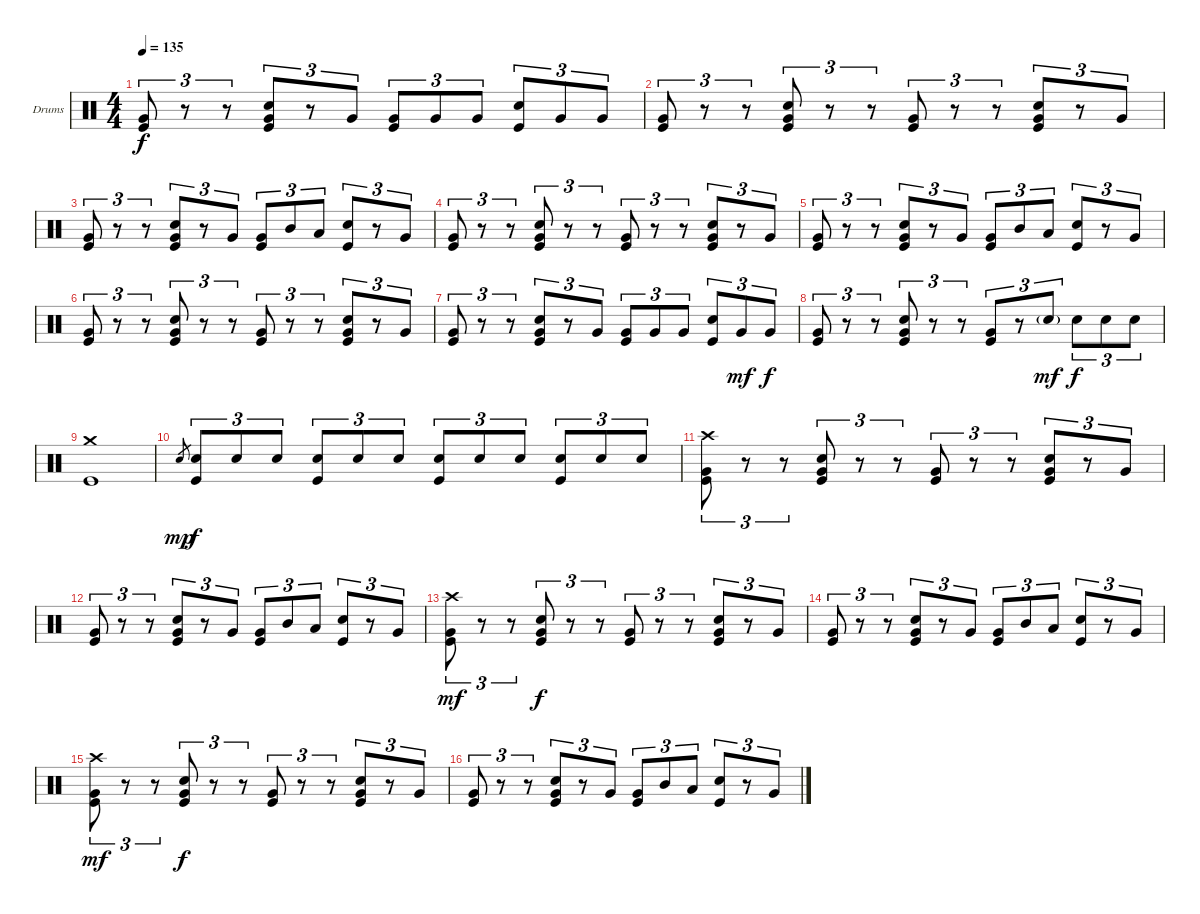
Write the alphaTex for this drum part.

\bracketExtendMode groupsimilarinstruments
\firstSystemTrackNameOrientation horizontal
\otherSystemsTrackNameOrientation horizontal
\track ("Drumkit (Christoph)" "Drums") {instrument percussion}
\staff {score}
\articulation defaults
\ts (4 4)
\tempo 135
\clef neutral
\ks c
("Very Low Tom (hit)" "Kick (hit)").8{tu (3 2) dy f} r.8{tu (3 2)} r.8{tu (3 2)} ("Snare (hit) 2" "Very Low Tom (hit)" "Kick (hit)").8{tu (3 2)} r.8{tu (3 2)} "Very Low Tom (hit)".8{tu (3 2)} ("Very Low Tom (hit)" "Kick (hit)").8{tu (3 2)} "Very Low Tom (hit)".8{tu (3 2)} "Very Low Tom (hit)".8{tu (3 2)} ("Snare (hit) 2" "Kick (hit)").8{tu (3 2)} "Very Low Tom (hit)".8{tu (3 2)} "Very Low Tom (hit)".8{tu (3 2)} |
("Very Low Tom (hit)" "Kick (hit)").8{tu (3 2)} r.8{tu (3 2)} r.8{tu (3 2)} ("Snare (hit) 2" "Very Low Tom (hit)" "Kick (hit)").8{tu (3 2)} r.8{tu (3 2)} r.8{tu (3 2)} ("Very Low Tom (hit)" "Kick (hit)").8{tu (3 2)} r.8{tu (3 2)} r.8{tu (3 2)} ("Snare (hit) 2" "Very Low Tom (hit)" "Kick (hit)").8{tu (3 2)} r.8{tu (3 2)} "Very Low Tom (hit)".8{tu (3 2)} |
("Very Low Tom (hit)" "Kick (hit)").8{tu (3 2)} r.8{tu (3 2)} r.8{tu (3 2)} ("Snare (hit) 2" "Very Low Tom (hit)" "Kick (hit)").8{tu (3 2)} r.8{tu (3 2)} "Very Low Tom (hit)".8{tu (3 2)} ("Very Low Tom (hit)" "Kick (hit)").8{tu (3 2)} "Mid Tom (hit)".8{tu (3 2)} "Low Tom (hit)".8{tu (3 2)} ("Snare (hit) 2" "Kick (hit)").8{tu (3 2)} r.8{tu (3 2)} "Very Low Tom (hit)".8{tu (3 2)} |
("Very Low Tom (hit)" "Kick (hit)").8{tu (3 2)} r.8{tu (3 2)} r.8{tu (3 2)} ("Snare (hit) 2" "Very Low Tom (hit)" "Kick (hit)").8{tu (3 2)} r.8{tu (3 2)} r.8{tu (3 2)} ("Very Low Tom (hit)" "Kick (hit)").8{tu (3 2)} r.8{tu (3 2)} r.8{tu (3 2)} ("Snare (hit) 2" "Very Low Tom (hit)" "Kick (hit)").8{tu (3 2)} r.8{tu (3 2)} "Very Low Tom (hit)".8{tu (3 2)} |
("Very Low Tom (hit)" "Kick (hit)").8{tu (3 2)} r.8{tu (3 2)} r.8{tu (3 2)} ("Snare (hit) 2" "Very Low Tom (hit)" "Kick (hit)").8{tu (3 2)} r.8{tu (3 2)} "Very Low Tom (hit)".8{tu (3 2)} ("Very Low Tom (hit)" "Kick (hit)").8{tu (3 2)} "Mid Tom (hit)".8{tu (3 2)} "Low Tom (hit)".8{tu (3 2)} ("Snare (hit) 2" "Kick (hit)").8{tu (3 2)} r.8{tu (3 2)} "Very Low Tom (hit)".8{tu (3 2)} |
("Very Low Tom (hit)" "Kick (hit)").8{tu (3 2)} r.8{tu (3 2)} r.8{tu (3 2)} ("Snare (hit) 2" "Very Low Tom (hit)" "Kick (hit)").8{tu (3 2)} r.8{tu (3 2)} r.8{tu (3 2)} ("Very Low Tom (hit)" "Kick (hit)").8{tu (3 2)} r.8{tu (3 2)} r.8{tu (3 2)} ("Snare (hit) 2" "Very Low Tom (hit)" "Kick (hit)").8{tu (3 2)} r.8{tu (3 2)} "Very Low Tom (hit)".8{tu (3 2)} |
("Very Low Tom (hit)" "Kick (hit)").8{tu (3 2)} r.8{tu (3 2)} r.8{tu (3 2)} ("Snare (hit) 2" "Very Low Tom (hit)" "Kick (hit)").8{tu (3 2)} r.8{tu (3 2)} "Very Low Tom (hit)".8{tu (3 2)} ("Very Low Tom (hit)" "Kick (hit)").8{tu (3 2)} "Very Low Tom (hit)".8{tu (3 2)} "Very Low Tom (hit)".8{tu (3 2)} ("Snare (hit) 2" "Kick (hit)").8{tu (3 2)} "Very Low Tom (hit)".8{tu (3 2) dy mf} "Very Low Tom (hit)".8{tu (3 2) dy f} |
("Very Low Tom (hit)" "Kick (hit)").8{tu (3 2)} r.8{tu (3 2)} r.8{tu (3 2)} ("Snare (hit) 2" "Very Low Tom (hit)" "Kick (hit)").8{tu (3 2)} r.8{tu (3 2)} r.8{tu (3 2)} ("Very Low Tom (hit)" "Kick (hit)").8{tu (3 2)} r.8{tu (3 2)} "Snare (hit) 2"{g}.8{tu (3 2) dy mf} "Snare (hit) 2".8{tu (3 2) dy f} "Snare (hit) 2".8{tu (3 2)} "Snare (hit) 2".8{tu (3 2)} |
("Crash medium (hit)" "Kick (hit)").1 |
"Snare (hit) 2".8{gr dy mp} ("Snare (hit) 2" "Kick (hit)").8{tu (3 2) dy f} "Snare (hit) 2".8{tu (3 2)} "Snare (hit) 2".8{tu (3 2)} ("Snare (hit) 2" "Kick (hit)").8{tu (3 2)} "Snare (hit) 2".8{tu (3 2)} "Snare (hit) 2".8{tu (3 2)} ("Snare (hit) 2" "Kick (hit)").8{tu (3 2)} "Snare (hit) 2".8{tu (3 2)} "Snare (hit) 2".8{tu (3 2)} ("Snare (hit) 2" "Kick (hit)").8{tu (3 2)} "Snare (hit) 2".8{tu (3 2)} "Snare (hit) 2".8{tu (3 2)} |
("Crash high (hit)" "Very Low Tom (hit)" "Kick (hit)").8{tu (3 2)} r.8{tu (3 2)} r.8{tu (3 2)} ("Snare (hit) 2" "Very Low Tom (hit)" "Kick (hit)").8{tu (3 2)} r.8{tu (3 2)} r.8{tu (3 2)} ("Very Low Tom (hit)" "Kick (hit)").8{tu (3 2)} r.8{tu (3 2)} r.8{tu (3 2)} ("Snare (hit) 2" "Very Low Tom (hit)" "Kick (hit)").8{tu (3 2)} r.8{tu (3 2)} "Very Low Tom (hit)".8{tu (3 2)} |
("Very Low Tom (hit)" "Kick (hit)").8{tu (3 2)} r.8{tu (3 2)} r.8{tu (3 2)} ("Snare (hit) 2" "Very Low Tom (hit)" "Kick (hit)").8{tu (3 2)} r.8{tu (3 2)} "Very Low Tom (hit)".8{tu (3 2)} ("Very Low Tom (hit)" "Kick (hit)").8{tu (3 2)} "Mid Tom (hit)".8{tu (3 2)} "Low Tom (hit)".8{tu (3 2)} ("Snare (hit) 2" "Kick (hit)").8{tu (3 2)} r.8{tu (3 2)} "Very Low Tom (hit)".8{tu (3 2)} |
("Crash high (hit)" "Very Low Tom (hit)" "Kick (hit)").8{tu (3 2) dy mf} r.8{tu (3 2)} r.8{tu (3 2)} ("Snare (hit) 2" "Very Low Tom (hit)" "Kick (hit)").8{tu (3 2) dy f} r.8{tu (3 2)} r.8{tu (3 2)} ("Very Low Tom (hit)" "Kick (hit)").8{tu (3 2)} r.8{tu (3 2)} r.8{tu (3 2)} ("Snare (hit) 2" "Very Low Tom (hit)" "Kick (hit)").8{tu (3 2)} r.8{tu (3 2)} "Very Low Tom (hit)".8{tu (3 2)} |
("Very Low Tom (hit)" "Kick (hit)").8{tu (3 2)} r.8{tu (3 2)} r.8{tu (3 2)} ("Snare (hit) 2" "Very Low Tom (hit)" "Kick (hit)").8{tu (3 2)} r.8{tu (3 2)} "Very Low Tom (hit)".8{tu (3 2)} ("Very Low Tom (hit)" "Kick (hit)").8{tu (3 2)} "Mid Tom (hit)".8{tu (3 2)} "Low Tom (hit)".8{tu (3 2)} ("Snare (hit) 2" "Kick (hit)").8{tu (3 2)} r.8{tu (3 2)} "Very Low Tom (hit)".8{tu (3 2)} |
("Crash high (hit)" "Very Low Tom (hit)" "Kick (hit)").8{tu (3 2) dy mf} r.8{tu (3 2)} r.8{tu (3 2)} ("Snare (hit) 2" "Very Low Tom (hit)" "Kick (hit)").8{tu (3 2) dy f} r.8{tu (3 2)} r.8{tu (3 2)} ("Very Low Tom (hit)" "Kick (hit)").8{tu (3 2)} r.8{tu (3 2)} r.8{tu (3 2)} ("Snare (hit) 2" "Very Low Tom (hit)" "Kick (hit)").8{tu (3 2)} r.8{tu (3 2)} "Very Low Tom (hit)".8{tu (3 2)} |
("Very Low Tom (hit)" "Kick (hit)").8{tu (3 2)} r.8{tu (3 2)} r.8{tu (3 2)} ("Snare (hit) 2" "Very Low Tom (hit)" "Kick (hit)").8{tu (3 2)} r.8{tu (3 2)} "Very Low Tom (hit)".8{tu (3 2)} ("Very Low Tom (hit)" "Kick (hit)").8{tu (3 2)} "Mid Tom (hit)".8{tu (3 2)} "Low Tom (hit)".8{tu (3 2)} ("Snare (hit) 2" "Kick (hit)").8{tu (3 2)} r.8{tu (3 2)} "Very Low Tom (hit)".8{tu (3 2)}
